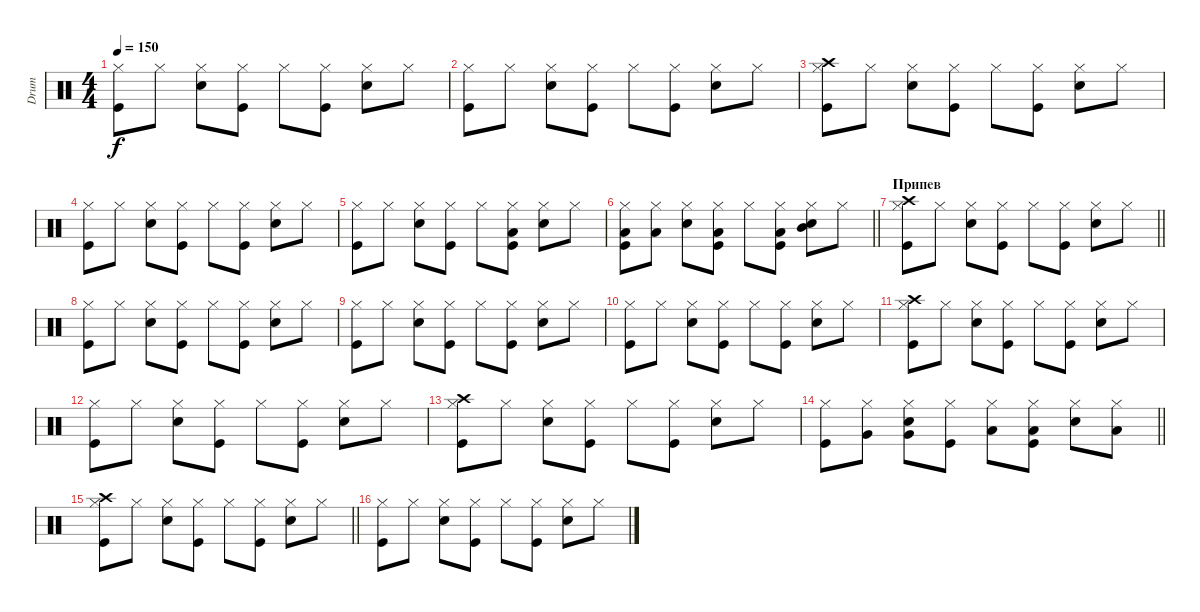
\track ("Drum" "Drum") {instrument percussion}
\staff {score}
\articulation defaults
\ts (4 4)
\tempo 150
\clef neutral
\ks c
("Kick (hit)" "Hi-Hat (closed)").8{dy f} "Hi-Hat (closed)".8 ("Snare (hit) 2" "Hi-Hat (closed)").8 ("Kick (hit)" "Hi-Hat (closed)").8 "Hi-Hat (closed)".8 ("Kick (hit)" "Hi-Hat (closed)").8 ("Snare (hit) 2" "Hi-Hat (closed)").8 "Hi-Hat (closed)".8 |
("Kick (hit)" "Hi-Hat (closed)").8 "Hi-Hat (closed)".8 ("Snare (hit) 2" "Hi-Hat (closed)").8 ("Kick (hit)" "Hi-Hat (closed)").8 "Hi-Hat (closed)".8 ("Kick (hit)" "Hi-Hat (closed)").8 ("Snare (hit) 2" "Hi-Hat (closed)").8 "Hi-Hat (closed)".8 |
("Kick (hit)" "Hi-Hat (closed)" "Crash high (hit)").8 "Hi-Hat (closed)".8 ("Snare (hit) 2" "Hi-Hat (closed)").8 ("Kick (hit)" "Hi-Hat (closed)").8 "Hi-Hat (closed)".8 ("Kick (hit)" "Hi-Hat (closed)").8 ("Snare (hit) 2" "Hi-Hat (closed)").8 "Hi-Hat (closed)".8 |
("Kick (hit)" "Hi-Hat (closed)").8 "Hi-Hat (closed)".8 ("Snare (hit) 2" "Hi-Hat (closed)").8 ("Kick (hit)" "Hi-Hat (closed)").8 "Hi-Hat (closed)".8 ("Kick (hit)" "Hi-Hat (closed)").8 ("Snare (hit) 2" "Hi-Hat (closed)").8 "Hi-Hat (closed)".8 |
("Kick (hit)" "Hi-Hat (closed)").8 "Hi-Hat (closed)".8 ("Snare (hit) 2" "Hi-Hat (closed)").8 ("Kick (hit)" "Hi-Hat (closed)").8 "Hi-Hat (closed)".8 ("Kick (hit)" "Hi-Hat (closed)" "Low Tom (hit)").8 ("Snare (hit) 2" "Hi-Hat (closed)").8 "Hi-Hat (closed)".8 |
\barLineRight lightlight
("Kick (hit)" "Hi-Hat (closed)" "Low Tom (hit)").8 ("Hi-Hat (closed)" "Low Tom (hit)").8 ("Snare (hit) 2" "Hi-Hat (closed)").8 ("Kick (hit)" "Hi-Hat (closed)" "Low Tom (hit)").8 "Hi-Hat (closed)".8 ("Kick (hit)" "Hi-Hat (closed)" "Low Tom (hit)").8 ("Snare (hit) 2" "Hi-Hat (closed)" "Mid Tom (hit)").8 "Hi-Hat (closed)".8 |
\section ("" "Припев")
\barLineRight lightlight
("Kick (hit)" "Hi-Hat (closed)" "Crash high (hit)").8 "Hi-Hat (closed)".8 ("Snare (hit) 2" "Hi-Hat (closed)").8 ("Kick (hit)" "Hi-Hat (closed)").8 "Hi-Hat (closed)".8 ("Kick (hit)" "Hi-Hat (closed)").8 ("Snare (hit) 2" "Hi-Hat (closed)").8 "Hi-Hat (closed)".8 |
("Kick (hit)" "Hi-Hat (closed)").8 "Hi-Hat (closed)".8 ("Snare (hit) 2" "Hi-Hat (closed)").8 ("Kick (hit)" "Hi-Hat (closed)").8 "Hi-Hat (closed)".8 ("Kick (hit)" "Hi-Hat (closed)").8 ("Snare (hit) 2" "Hi-Hat (closed)").8 "Hi-Hat (closed)".8 |
("Kick (hit)" "Hi-Hat (closed)").8 "Hi-Hat (closed)".8 ("Snare (hit) 2" "Hi-Hat (closed)").8 ("Kick (hit)" "Hi-Hat (closed)").8 "Hi-Hat (closed)".8 ("Kick (hit)" "Hi-Hat (closed)").8 ("Snare (hit) 2" "Hi-Hat (closed)").8 "Hi-Hat (closed)".8 |
("Kick (hit)" "Hi-Hat (closed)").8 "Hi-Hat (closed)".8 ("Snare (hit) 2" "Hi-Hat (closed)").8 ("Kick (hit)" "Hi-Hat (closed)").8 "Hi-Hat (closed)".8 ("Kick (hit)" "Hi-Hat (closed)").8 ("Snare (hit) 2" "Hi-Hat (closed)").8 "Hi-Hat (closed)".8 |
("Kick (hit)" "Hi-Hat (closed)" "Crash high (hit)").8 "Hi-Hat (closed)".8 ("Snare (hit) 2" "Hi-Hat (closed)").8 ("Kick (hit)" "Hi-Hat (closed)").8 "Hi-Hat (closed)".8 ("Kick (hit)" "Hi-Hat (closed)").8 ("Snare (hit) 2" "Hi-Hat (closed)").8 "Hi-Hat (closed)".8 |
("Kick (hit)" "Hi-Hat (closed)").8 "Hi-Hat (closed)".8 ("Snare (hit) 2" "Hi-Hat (closed)").8 ("Kick (hit)" "Hi-Hat (closed)").8 "Hi-Hat (closed)".8 ("Kick (hit)" "Hi-Hat (closed)").8 ("Snare (hit) 2" "Hi-Hat (closed)").8 "Hi-Hat (closed)".8 |
("Kick (hit)" "Hi-Hat (closed)" "Crash high (hit)").8 "Hi-Hat (closed)".8 ("Snare (hit) 2" "Hi-Hat (closed)").8 ("Kick (hit)" "Hi-Hat (closed)").8 "Hi-Hat (closed)".8 ("Kick (hit)" "Hi-Hat (closed)").8 ("Snare (hit) 2" "Hi-Hat (closed)").8 "Hi-Hat (closed)".8 |
\barLineRight lightlight
("Kick (hit)" "Hi-Hat (closed)").8 ("Hi-Hat (closed)" "Very Low Tom (hit)").8 ("Snare (hit) 2" "Hi-Hat (closed)" "Very Low Tom (hit)").8 ("Kick (hit)" "Hi-Hat (closed)").8 ("Hi-Hat (closed)" "Low Floor Tom (hit)").8 ("Kick (hit)" "Hi-Hat (closed)" "Low Floor Tom (hit)").8 ("Snare (hit) 2" "Hi-Hat (closed)").8 ("Hi-Hat (closed)" "Low Floor Tom (hit)").8 |
\barLineRight lightlight
("Kick (hit)" "Hi-Hat (closed)" "Crash high (hit)").8 "Hi-Hat (closed)".8 ("Snare (hit) 2" "Hi-Hat (closed)").8 ("Kick (hit)" "Hi-Hat (closed)").8 "Hi-Hat (closed)".8 ("Kick (hit)" "Hi-Hat (closed)").8 ("Snare (hit) 2" "Hi-Hat (closed)").8 "Hi-Hat (closed)".8 |
("Kick (hit)" "Hi-Hat (closed)").8 "Hi-Hat (closed)".8 ("Snare (hit) 2" "Hi-Hat (closed)").8 ("Kick (hit)" "Hi-Hat (closed)").8 "Hi-Hat (closed)".8 ("Kick (hit)" "Hi-Hat (closed)").8 ("Snare (hit) 2" "Hi-Hat (closed)").8 "Hi-Hat (closed)".8
